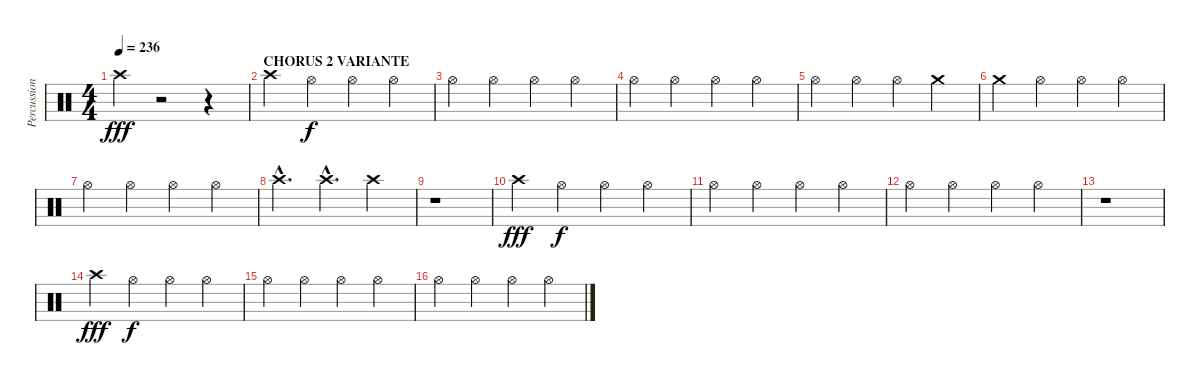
\track ("Percussions" "Percussion") {instrument percussion}
\staff {score}
\articulation defaults
\ts (4 4)
\tempo 236
\clef neutral
\ks c "Crash high (hit)".4{dy fff}
r.2 r.4 |
\section ("" "CHORUS 2 VARIANTE")
"Crash high (hit)".4 "Hi-Hat (open)".4{dy f} "Hi-Hat (open)".4 "Hi-Hat (open)".4 |
"Hi-Hat (open)".4 "Hi-Hat (open)".4 "Hi-Hat (open)".4 "Hi-Hat (open)".4 |
"Hi-Hat (open)".4 "Hi-Hat (open)".4 "Hi-Hat (open)".4 "Hi-Hat (open)".4 |
"Hi-Hat (open)".4 "Hi-Hat (open)".4 "Hi-Hat (open)".4 "Crash medium (hit)".4 |
"Crash medium (hit)".4 "Hi-Hat (open)".4 "Hi-Hat (open)".4 "Hi-Hat (open)".4 |
"Hi-Hat (open)".4 "Hi-Hat (open)".4 "Hi-Hat (open)".4 "Hi-Hat (open)".4 |
"Crash high (hit)"{hac}.4{d} "Crash high (hit)"{hac}.4{d} "Crash high (hit)".4 |
r.1 |
"Crash high (hit)".4{dy fff} "Hi-Hat (open)".4{dy f} "Hi-Hat (open)".4 "Hi-Hat (open)".4 |
"Hi-Hat (open)".4 "Hi-Hat (open)".4 "Hi-Hat (open)".4 "Hi-Hat (open)".4 |
"Hi-Hat (open)".4 "Hi-Hat (open)".4 "Hi-Hat (open)".4 "Hi-Hat (open)".4 |
r.1 |
"Crash high (hit)".4{dy fff} "Hi-Hat (open)".4{dy f} "Hi-Hat (open)".4 "Hi-Hat (open)".4 |
"Hi-Hat (open)".4 "Hi-Hat (open)".4 "Hi-Hat (open)".4 "Hi-Hat (open)".4 |
"Hi-Hat (open)".4 "Hi-Hat (open)".4 "Hi-Hat (open)".4 "Hi-Hat (open)".4
